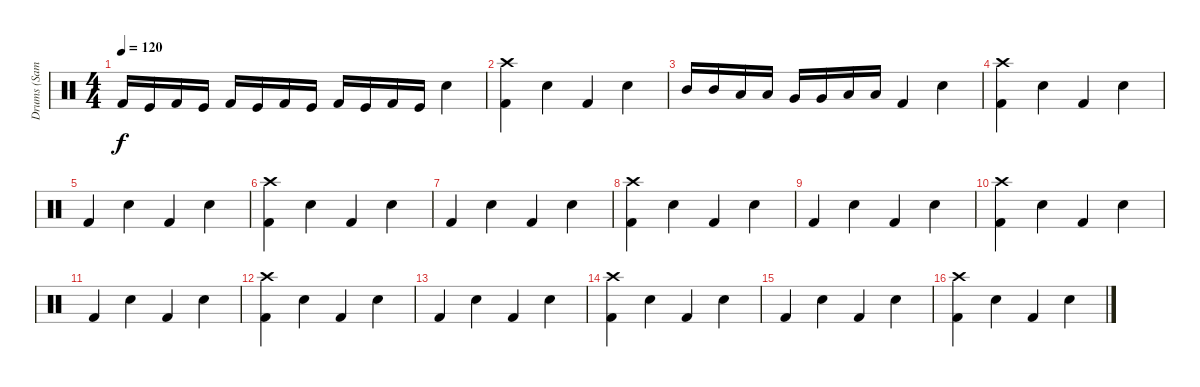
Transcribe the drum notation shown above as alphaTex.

\track ("Drums (Sami Karppinen)" "Drums (Sam") {instrument percussion}
\staff {score}
\articulation defaults
\ts (4 4)
\tempo 120
\clef neutral
\ks c "Kick (hit) 2".16{dy f} "Kick (hit)".16 "Kick (hit) 2".16 "Kick (hit)".16 "Kick (hit) 2".16 "Kick (hit)".16 "Kick (hit) 2".16 "Kick (hit)".16 "Kick (hit) 2".16 "Kick (hit)".16 "Kick (hit) 2".16 "Kick (hit)".16 "Electric Snare (hit)".4
|
("Crash high (hit)" "Kick (hit) 2").4 "Electric Snare (hit)".4 "Kick (hit) 2".4 "Electric Snare (hit)".4 |
"Mid Tom (hit)".16 "Mid Tom (hit)".16 "Low Tom (hit)".16 "Low Tom (hit)".16 "Very Low Tom (hit)".16 "Very Low Tom (hit)".16 "Low Floor Tom (hit)".16 "Low Floor Tom (hit)".16 "Kick (hit) 2".4 "Electric Snare (hit)".4 |
("Crash high (hit)" "Kick (hit) 2").4 "Electric Snare (hit)".4 "Kick (hit) 2".4 "Electric Snare (hit)".4 |
"Kick (hit) 2".4 "Electric Snare (hit)".4 "Kick (hit) 2".4 "Electric Snare (hit)".4 |
("Crash high (hit)" "Kick (hit) 2").4 "Electric Snare (hit)".4 "Kick (hit) 2".4 "Electric Snare (hit)".4 |
"Kick (hit) 2".4 "Electric Snare (hit)".4 "Kick (hit) 2".4 "Electric Snare (hit)".4 |
("Crash high (hit)" "Kick (hit) 2").4 "Electric Snare (hit)".4 "Kick (hit) 2".4 "Electric Snare (hit)".4 |
"Kick (hit) 2".4 "Electric Snare (hit)".4 "Kick (hit) 2".4 "Electric Snare (hit)".4 |
("Crash high (hit)" "Kick (hit) 2").4 "Electric Snare (hit)".4 "Kick (hit) 2".4 "Electric Snare (hit)".4 |
"Kick (hit) 2".4 "Electric Snare (hit)".4 "Kick (hit) 2".4 "Electric Snare (hit)".4 |
("Crash high (hit)" "Kick (hit) 2").4 "Electric Snare (hit)".4 "Kick (hit) 2".4 "Electric Snare (hit)".4 |
"Kick (hit) 2".4 "Electric Snare (hit)".4 "Kick (hit) 2".4 "Electric Snare (hit)".4 |
("Crash high (hit)" "Kick (hit) 2").4 "Electric Snare (hit)".4 "Kick (hit) 2".4 "Electric Snare (hit)".4 |
"Kick (hit) 2".4 "Electric Snare (hit)".4 "Kick (hit) 2".4 "Electric Snare (hit)".4 |
("Crash high (hit)" "Kick (hit) 2").4 "Electric Snare (hit)".4 "Kick (hit) 2".4 "Electric Snare (hit)".4
